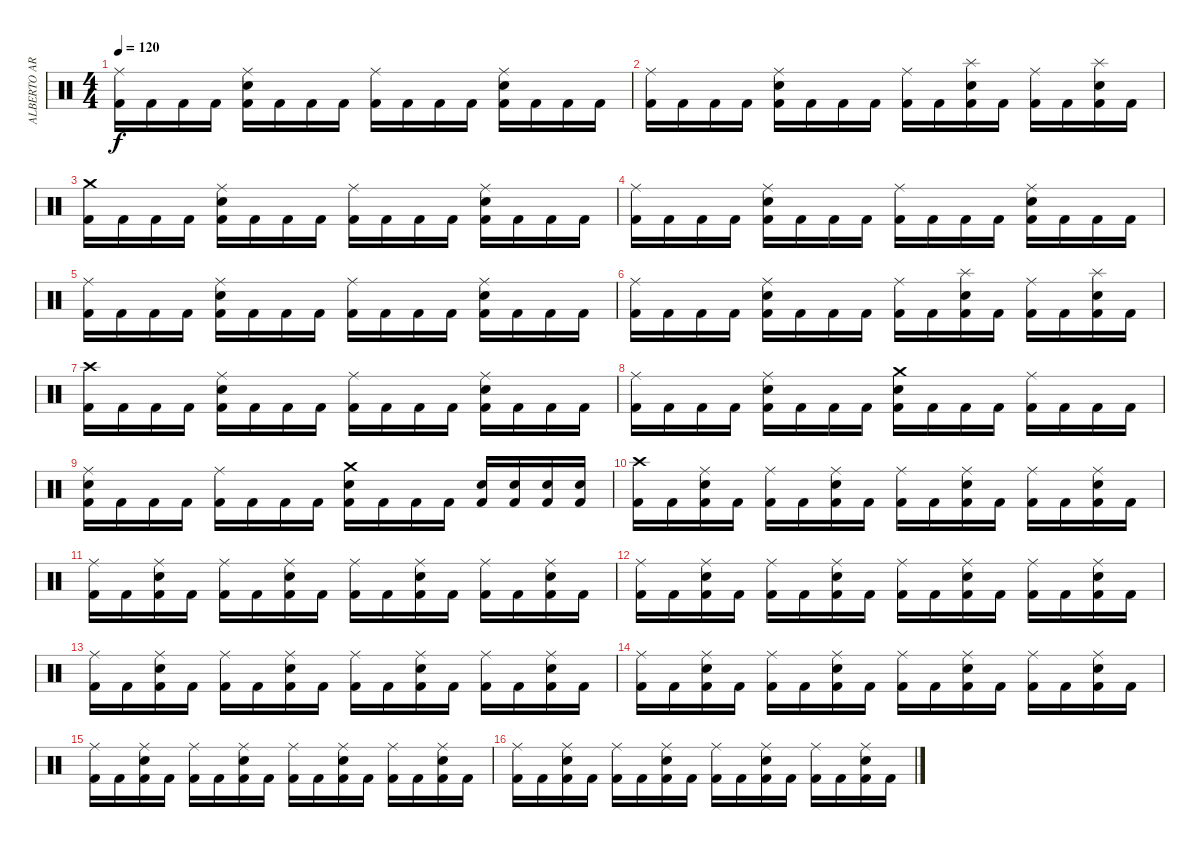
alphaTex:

\track ("ALBERTO ARDINES" "ALBERTO AR") {instrument percussion}
\staff {score}
\articulation defaults
\ts (4 4)
\tempo 120
\clef neutral
\ks c
("Ride (middle)" "Kick (hit) 2").16{dy f} "Kick (hit) 2".16 "Kick (hit) 2".16 "Kick (hit) 2".16 ("Ride (middle)" "Electric Snare (hit)" "Kick (hit) 2").16 "Kick (hit) 2".16 "Kick (hit) 2".16 "Kick (hit) 2".16 ("Ride (middle)" "Kick (hit) 2").16 "Kick (hit) 2".16 "Kick (hit) 2".16 "Kick (hit) 2".16 ("Ride (middle)" "Electric Snare (hit)" "Kick (hit) 2").16 "Kick (hit) 2".16 "Kick (hit) 2".16 "Kick (hit) 2".16 |
("Ride (middle)" "Kick (hit) 2").16 "Kick (hit) 2".16 "Kick (hit) 2".16 "Kick (hit) 2".16 ("Ride (middle)" "Electric Snare (hit)" "Kick (hit) 2").16 "Kick (hit) 2".16 "Kick (hit) 2".16 "Kick (hit) 2".16 ("Ride (middle)" "Kick (hit) 2").16 "Kick (hit) 2".16 ("Splash (hit)" "Electric Snare (hit)" "Kick (hit) 2").16 "Kick (hit) 2".16 ("Ride (middle)" "Kick (hit) 2").16 "Kick (hit) 2".16 ("Splash (hit)" "Electric Snare (hit)" "Kick (hit) 2").16 "Kick (hit) 2".16 |
("Crash medium (hit)" "Kick (hit) 2").16 "Kick (hit) 2".16 "Kick (hit) 2".16 "Kick (hit) 2".16 ("Ride (middle)" "Electric Snare (hit)" "Kick (hit) 2").16 "Kick (hit) 2".16 "Kick (hit) 2".16 "Kick (hit) 2".16 ("Ride (middle)" "Kick (hit) 2").16 "Kick (hit) 2".16 "Kick (hit) 2".16 "Kick (hit) 2".16 ("Ride (middle)" "Electric Snare (hit)" "Kick (hit) 2").16 "Kick (hit) 2".16 "Kick (hit) 2".16 "Kick (hit) 2".16 |
("Ride (middle)" "Kick (hit) 2").16 "Kick (hit) 2".16 "Kick (hit) 2".16 "Kick (hit) 2".16 ("Ride (middle)" "Electric Snare (hit)" "Kick (hit) 2").16 "Kick (hit) 2".16 "Kick (hit) 2".16 "Kick (hit) 2".16 ("Ride (middle)" "Kick (hit) 2").16 "Kick (hit) 2".16 "Kick (hit) 2".16 "Kick (hit) 2".16 ("Ride (middle)" "Electric Snare (hit)" "Kick (hit) 2").16 "Kick (hit) 2".16 "Kick (hit) 2".16 "Kick (hit) 2".16 |
("Ride (middle)" "Kick (hit) 2").16 "Kick (hit) 2".16 "Kick (hit) 2".16 "Kick (hit) 2".16 ("Ride (middle)" "Electric Snare (hit)" "Kick (hit) 2").16 "Kick (hit) 2".16 "Kick (hit) 2".16 "Kick (hit) 2".16 ("Ride (middle)" "Kick (hit) 2").16 "Kick (hit) 2".16 "Kick (hit) 2".16 "Kick (hit) 2".16 ("Ride (middle)" "Electric Snare (hit)" "Kick (hit) 2").16 "Kick (hit) 2".16 "Kick (hit) 2".16 "Kick (hit) 2".16 |
("Ride (middle)" "Kick (hit) 2").16 "Kick (hit) 2".16 "Kick (hit) 2".16 "Kick (hit) 2".16 ("Ride (middle)" "Electric Snare (hit)" "Kick (hit) 2").16 "Kick (hit) 2".16 "Kick (hit) 2".16 "Kick (hit) 2".16 ("Ride (middle)" "Kick (hit) 2").16 "Kick (hit) 2".16 ("Splash (hit)" "Electric Snare (hit)" "Kick (hit) 2").16 "Kick (hit) 2".16 ("Ride (middle)" "Kick (hit) 2").16 "Kick (hit) 2".16 ("Splash (hit)" "Electric Snare (hit)" "Kick (hit) 2").16 "Kick (hit) 2".16 |
("Crash high (hit)" "Kick (hit) 2").16 "Kick (hit) 2".16 "Kick (hit) 2".16 "Kick (hit) 2".16 ("Ride (middle)" "Electric Snare (hit)" "Kick (hit) 2").16 "Kick (hit) 2".16 "Kick (hit) 2".16 "Kick (hit) 2".16 ("Ride (middle)" "Kick (hit) 2").16 "Kick (hit) 2".16 "Kick (hit) 2".16 "Kick (hit) 2".16 ("Ride (middle)" "Electric Snare (hit)" "Kick (hit) 2").16 "Kick (hit) 2".16 "Kick (hit) 2".16 "Kick (hit) 2".16 |
("Ride (middle)" "Kick (hit) 2").16 "Kick (hit) 2".16 "Kick (hit) 2".16 "Kick (hit) 2".16 ("Ride (middle)" "Electric Snare (hit)" "Kick (hit) 2").16 "Kick (hit) 2".16 "Kick (hit) 2".16 "Kick (hit) 2".16 ("Crash medium (hit)" "Electric Snare (hit)" "Kick (hit) 2").16 "Kick (hit) 2".16 "Kick (hit) 2".16 "Kick (hit) 2".16 ("Ride (middle)" "Kick (hit) 2").16 "Kick (hit) 2".16 "Kick (hit) 2".16 "Kick (hit) 2".16 |
("Ride (middle)" "Electric Snare (hit)" "Kick (hit) 2").16 "Kick (hit) 2".16 "Kick (hit) 2".16 "Kick (hit) 2".16 ("Ride (middle)" "Kick (hit) 2").16 "Kick (hit) 2".16 "Kick (hit) 2".16 "Kick (hit) 2".16 ("Crash medium (hit)" "Electric Snare (hit)" "Kick (hit) 2").16 "Kick (hit) 2".16 "Kick (hit) 2".16 "Kick (hit) 2".16 ("Electric Snare (hit)" "Kick (hit) 2").16 ("Electric Snare (hit)" "Kick (hit) 2").16 ("Electric Snare (hit)" "Kick (hit) 2").16 ("Electric Snare (hit)" "Kick (hit) 2").16 |
("Crash high (hit)" "Kick (hit) 2").16 "Kick (hit) 2".16 ("Ride (middle)" "Electric Snare (hit)" "Kick (hit) 2").16 "Kick (hit) 2".16 ("Ride (middle)" "Kick (hit) 2").16 "Kick (hit) 2".16 ("Ride (middle)" "Electric Snare (hit)" "Kick (hit) 2").16 "Kick (hit) 2".16 ("Ride (middle)" "Kick (hit) 2").16 "Kick (hit) 2".16 ("Ride (middle)" "Electric Snare (hit)" "Kick (hit) 2").16 "Kick (hit) 2".16 ("Ride (middle)" "Kick (hit) 2").16 "Kick (hit) 2".16 ("Ride (middle)" "Electric Snare (hit)" "Kick (hit) 2").16 "Kick (hit) 2".16 |
("Ride (middle)" "Kick (hit) 2").16 "Kick (hit) 2".16 ("Ride (middle)" "Electric Snare (hit)" "Kick (hit) 2").16 "Kick (hit) 2".16 ("Ride (middle)" "Kick (hit) 2").16 "Kick (hit) 2".16 ("Ride (middle)" "Electric Snare (hit)" "Kick (hit) 2").16 "Kick (hit) 2".16 ("Ride (middle)" "Kick (hit) 2").16 "Kick (hit) 2".16 ("Ride (middle)" "Electric Snare (hit)" "Kick (hit) 2").16 "Kick (hit) 2".16 ("Ride (middle)" "Kick (hit) 2").16 "Kick (hit) 2".16 ("Ride (middle)" "Electric Snare (hit)" "Kick (hit) 2").16 "Kick (hit) 2".16 |
("Ride (middle)" "Kick (hit) 2").16 "Kick (hit) 2".16 ("Ride (middle)" "Electric Snare (hit)" "Kick (hit) 2").16 "Kick (hit) 2".16 ("Ride (middle)" "Kick (hit) 2").16 "Kick (hit) 2".16 ("Ride (middle)" "Electric Snare (hit)" "Kick (hit) 2").16 "Kick (hit) 2".16 ("Ride (middle)" "Kick (hit) 2").16 "Kick (hit) 2".16 ("Ride (middle)" "Electric Snare (hit)" "Kick (hit) 2").16 "Kick (hit) 2".16 ("Ride (middle)" "Kick (hit) 2").16 "Kick (hit) 2".16 ("Ride (middle)" "Electric Snare (hit)" "Kick (hit) 2").16 "Kick (hit) 2".16 |
("Ride (middle)" "Kick (hit) 2").16 "Kick (hit) 2".16 ("Ride (middle)" "Electric Snare (hit)" "Kick (hit) 2").16 "Kick (hit) 2".16 ("Ride (middle)" "Kick (hit) 2").16 "Kick (hit) 2".16 ("Ride (middle)" "Electric Snare (hit)" "Kick (hit) 2").16 "Kick (hit) 2".16 ("Ride (middle)" "Kick (hit) 2").16 "Kick (hit) 2".16 ("Ride (middle)" "Electric Snare (hit)" "Kick (hit) 2").16 "Kick (hit) 2".16 ("Ride (middle)" "Kick (hit) 2").16 "Kick (hit) 2".16 ("Ride (middle)" "Electric Snare (hit)" "Kick (hit) 2").16 "Kick (hit) 2".16 |
("Ride (middle)" "Kick (hit) 2").16 "Kick (hit) 2".16 ("Ride (middle)" "Electric Snare (hit)" "Kick (hit) 2").16 "Kick (hit) 2".16 ("Ride (middle)" "Kick (hit) 2").16 "Kick (hit) 2".16 ("Ride (middle)" "Electric Snare (hit)" "Kick (hit) 2").16 "Kick (hit) 2".16 ("Ride (middle)" "Kick (hit) 2").16 "Kick (hit) 2".16 ("Ride (middle)" "Electric Snare (hit)" "Kick (hit) 2").16 "Kick (hit) 2".16 ("Ride (middle)" "Kick (hit) 2").16 "Kick (hit) 2".16 ("Ride (middle)" "Electric Snare (hit)" "Kick (hit) 2").16 "Kick (hit) 2".16 |
("Ride (middle)" "Kick (hit) 2").16 "Kick (hit) 2".16 ("Ride (middle)" "Electric Snare (hit)" "Kick (hit) 2").16 "Kick (hit) 2".16 ("Ride (middle)" "Kick (hit) 2").16 "Kick (hit) 2".16 ("Ride (middle)" "Electric Snare (hit)" "Kick (hit) 2").16 "Kick (hit) 2".16 ("Ride (middle)" "Kick (hit) 2").16 "Kick (hit) 2".16 ("Ride (middle)" "Electric Snare (hit)" "Kick (hit) 2").16 "Kick (hit) 2".16 ("Ride (middle)" "Kick (hit) 2").16 "Kick (hit) 2".16 ("Ride (middle)" "Electric Snare (hit)" "Kick (hit) 2").16 "Kick (hit) 2".16 |
("Ride (middle)" "Kick (hit) 2").16 "Kick (hit) 2".16 ("Ride (middle)" "Electric Snare (hit)" "Kick (hit) 2").16 "Kick (hit) 2".16 ("Ride (middle)" "Kick (hit) 2").16 "Kick (hit) 2".16 ("Ride (middle)" "Electric Snare (hit)" "Kick (hit) 2").16 "Kick (hit) 2".16 ("Ride (middle)" "Kick (hit) 2").16 "Kick (hit) 2".16 ("Ride (middle)" "Electric Snare (hit)" "Kick (hit) 2").16 "Kick (hit) 2".16 ("Ride (middle)" "Kick (hit) 2").16 "Kick (hit) 2".16 ("Ride (middle)" "Electric Snare (hit)" "Kick (hit) 2").16 "Kick (hit) 2".16
